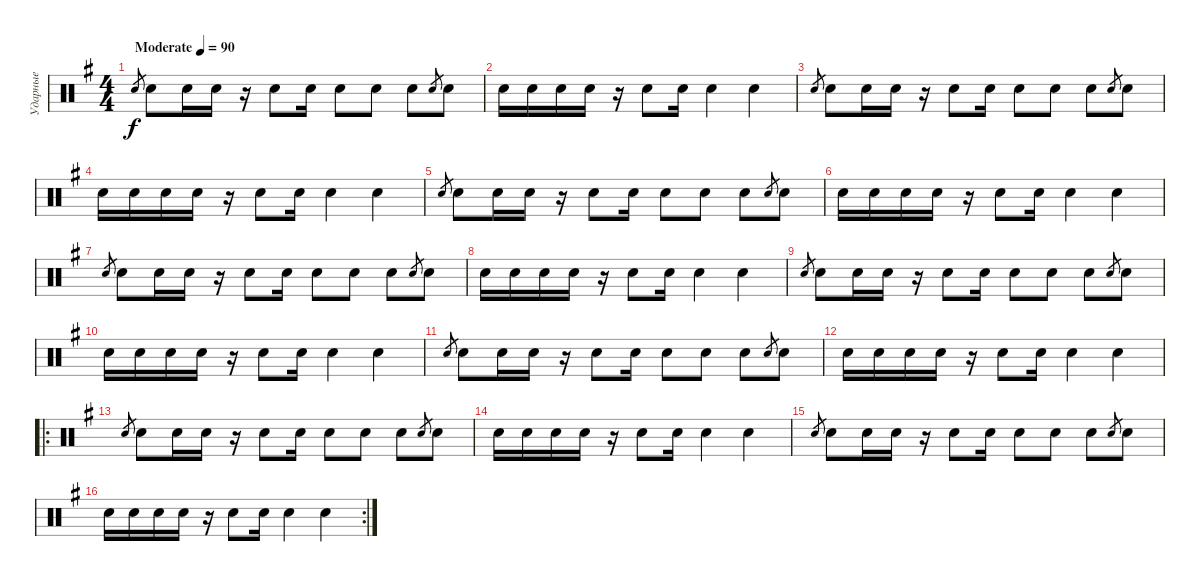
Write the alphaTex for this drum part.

\track ("Ударные" "Ударные") {instrument percussion}
\staff {score}
\articulation defaults
\ts (4 4)
\tempo (90 "Moderate")
\clef neutral
\ks g "Snare (hit) 2".8{gr dy f} "Snare (hit) 2".8 "Snare (hit) 2".16 "Snare (hit) 2".16
r.16 "Snare (hit) 2".8 "Snare (hit) 2".16 "Snare (hit) 2".8 "Snare (hit) 2".8 "Snare (hit) 2".8 "Snare (hit) 2".8{gr} "Snare (hit) 2".8 |
"Snare (hit) 2".16 "Snare (hit) 2".16 "Snare (hit) 2".16 "Snare (hit) 2".16 r.16 "Snare (hit) 2".8 "Snare (hit) 2".16 "Snare (hit) 2".4 "Snare (hit) 2".4 |
"Snare (hit) 2".8{gr} "Snare (hit) 2".8 "Snare (hit) 2".16 "Snare (hit) 2".16 r.16 "Snare (hit) 2".8 "Snare (hit) 2".16 "Snare (hit) 2".8 "Snare (hit) 2".8 "Snare (hit) 2".8 "Snare (hit) 2".8{gr} "Snare (hit) 2".8 |
"Snare (hit) 2".16 "Snare (hit) 2".16 "Snare (hit) 2".16 "Snare (hit) 2".16 r.16 "Snare (hit) 2".8 "Snare (hit) 2".16 "Snare (hit) 2".4 "Snare (hit) 2".4 |
"Snare (hit) 2".8{gr} "Snare (hit) 2".8 "Snare (hit) 2".16 "Snare (hit) 2".16 r.16 "Snare (hit) 2".8 "Snare (hit) 2".16 "Snare (hit) 2".8 "Snare (hit) 2".8 "Snare (hit) 2".8 "Snare (hit) 2".8{gr} "Snare (hit) 2".8 |
"Snare (hit) 2".16 "Snare (hit) 2".16 "Snare (hit) 2".16 "Snare (hit) 2".16 r.16 "Snare (hit) 2".8 "Snare (hit) 2".16 "Snare (hit) 2".4 "Snare (hit) 2".4 |
"Snare (hit) 2".8{gr} "Snare (hit) 2".8 "Snare (hit) 2".16 "Snare (hit) 2".16 r.16 "Snare (hit) 2".8 "Snare (hit) 2".16 "Snare (hit) 2".8 "Snare (hit) 2".8 "Snare (hit) 2".8 "Snare (hit) 2".8{gr} "Snare (hit) 2".8 |
"Snare (hit) 2".16 "Snare (hit) 2".16 "Snare (hit) 2".16 "Snare (hit) 2".16 r.16 "Snare (hit) 2".8 "Snare (hit) 2".16 "Snare (hit) 2".4 "Snare (hit) 2".4 |
"Snare (hit) 2".8{gr} "Snare (hit) 2".8 "Snare (hit) 2".16 "Snare (hit) 2".16 r.16 "Snare (hit) 2".8 "Snare (hit) 2".16 "Snare (hit) 2".8 "Snare (hit) 2".8 "Snare (hit) 2".8 "Snare (hit) 2".8{gr} "Snare (hit) 2".8 |
"Snare (hit) 2".16 "Snare (hit) 2".16 "Snare (hit) 2".16 "Snare (hit) 2".16 r.16 "Snare (hit) 2".8 "Snare (hit) 2".16 "Snare (hit) 2".4 "Snare (hit) 2".4 |
"Snare (hit) 2".8{gr} "Snare (hit) 2".8 "Snare (hit) 2".16 "Snare (hit) 2".16 r.16 "Snare (hit) 2".8 "Snare (hit) 2".16 "Snare (hit) 2".8 "Snare (hit) 2".8 "Snare (hit) 2".8 "Snare (hit) 2".8{gr} "Snare (hit) 2".8 |
"Snare (hit) 2".16 "Snare (hit) 2".16 "Snare (hit) 2".16 "Snare (hit) 2".16 r.16 "Snare (hit) 2".8 "Snare (hit) 2".16 "Snare (hit) 2".4 "Snare (hit) 2".4 |
\ro "Snare (hit) 2".8{gr} "Snare (hit) 2".8 "Snare (hit) 2".16 "Snare (hit) 2".16
r.16 "Snare (hit) 2".8 "Snare (hit) 2".16 "Snare (hit) 2".8 "Snare (hit) 2".8 "Snare (hit) 2".8 "Snare (hit) 2".8{gr} "Snare (hit) 2".8 |
"Snare (hit) 2".16 "Snare (hit) 2".16 "Snare (hit) 2".16 "Snare (hit) 2".16 r.16 "Snare (hit) 2".8 "Snare (hit) 2".16 "Snare (hit) 2".4 "Snare (hit) 2".4 |
"Snare (hit) 2".8{gr} "Snare (hit) 2".8 "Snare (hit) 2".16 "Snare (hit) 2".16 r.16 "Snare (hit) 2".8 "Snare (hit) 2".16 "Snare (hit) 2".8 "Snare (hit) 2".8 "Snare (hit) 2".8 "Snare (hit) 2".8{gr} "Snare (hit) 2".8 |
\rc 2 "Snare (hit) 2".16 "Snare (hit) 2".16 "Snare (hit) 2".16 "Snare (hit) 2".16
r.16 "Snare (hit) 2".8 "Snare (hit) 2".16 "Snare (hit) 2".4 "Snare (hit) 2".4
